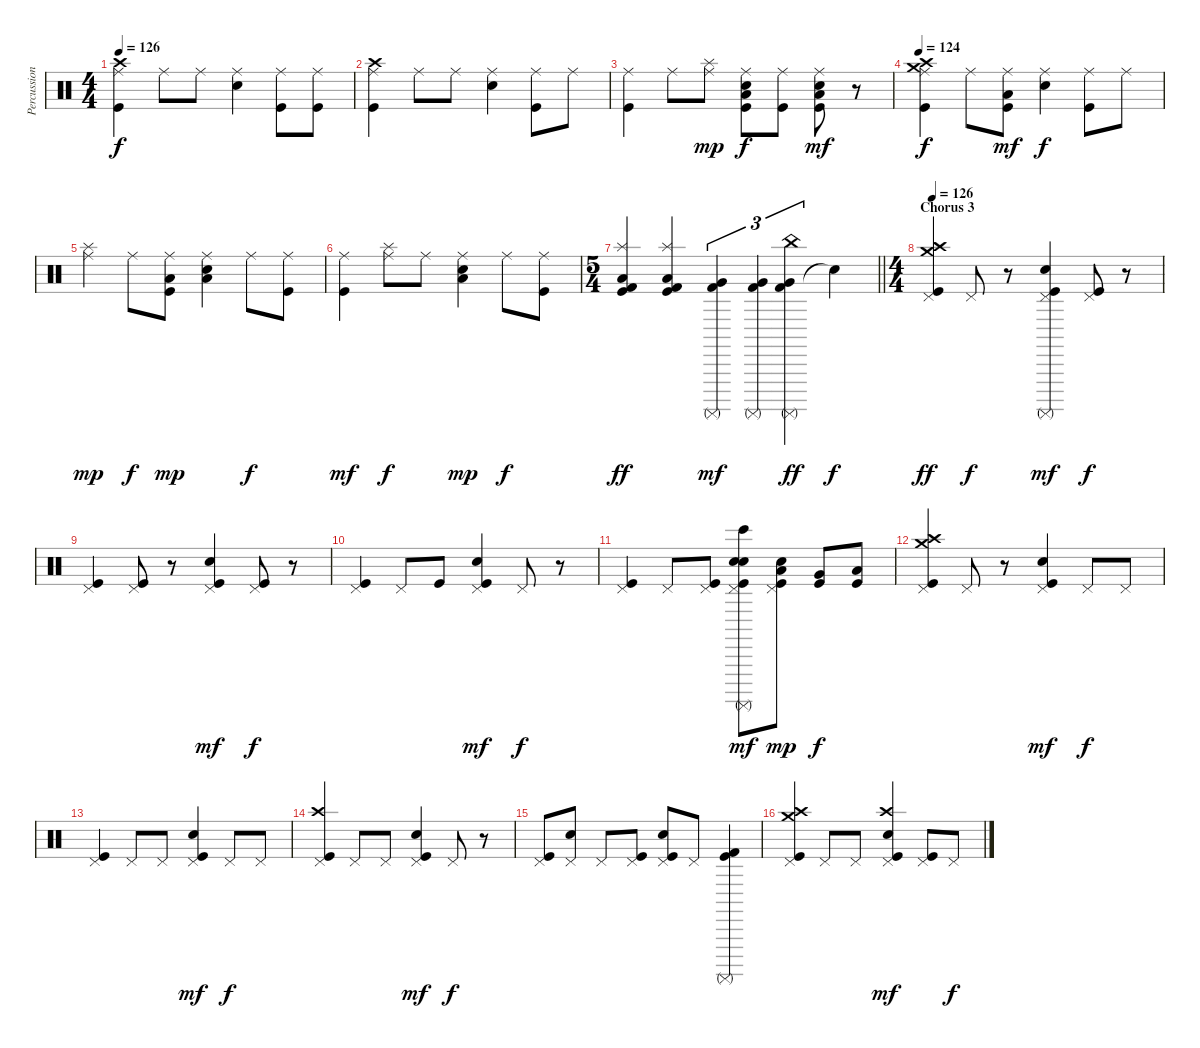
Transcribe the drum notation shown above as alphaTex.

\track ("Percussion" "Percussion") {instrument percussion}
\staff {score}
\articulation defaults
\ts (4 4)
\tempo 126
\clef neutral
\ks c
("Ride (middle)" "Kick (hit)" "Crash high (hit)").4{dy f} "Ride (middle)".8 "Ride (middle)".8 ("Ride (middle)" "Electric Snare (hit)").4 ("Ride (middle)" "Kick (hit)").8 ("Ride (middle)" "Kick (hit)").8 |
("Ride (middle)" "Kick (hit)" "Crash high (hit)").4 "Ride (middle)".8 "Ride (middle)".8 ("Ride (middle)" "Electric Snare (hit)").4 ("Ride (middle)" "Kick (hit)").8 "Ride (middle)".8 |
("Ride (middle)" "Kick (hit)").4 "Ride (middle)".8 ("Ride (middle)" "Splash (hit)").8{dy mp} ("Ride (middle)" "Kick (hit)" "Low Floor Tom (hit)" "Snare (hit) 2").8{dy f} ("Ride (middle)" "Kick (hit)").8 ("Ride (middle)" "Kick (hit)" "Low Floor Tom (hit)" "Electric Snare (hit)").8{dy mf} r.8 |
\tempo 124
("Ride (middle)" "Kick (hit)" "Crash high (hit)" "Crash medium (hit)").4{dy f} "Ride (middle)".8 ("Ride (middle)" "Kick (hit)" "Low Floor Tom (hit)").8{dy mf} ("Ride (middle)" "Electric Snare (hit)").4{dy f} ("Ride (middle)" "Kick (hit)").8 "Ride (middle)".8 |
("Ride (middle)" "Splash (hit)").4{dy mp} "Ride (middle)".8{dy f} ("Ride (middle)" "Kick (hit)" "Low Floor Tom (hit)").8{dy mp} ("Ride (middle)" "Electric Snare (hit)" "Low Floor Tom (hit)").4 "Ride (middle)".8{dy f} ("Ride (middle)" "Kick (hit)").8 |
("Ride (middle)" "Kick (hit)").4{dy mf} ("Ride (middle)" "Splash (hit)").8{dy f} "Ride (middle)".8 ("Ride (middle)" "Electric Snare (hit)" "Low Floor Tom (hit)").4{dy mp} "Ride (middle)".8{dy f} ("Ride (middle)" "Kick (hit)").8 |
\ts (5 4)
\barLineRight lightlight
("Kick (hit) 2" "Kick (hit)" "Low Floor Tom (hit)" "Splash (hit)").4{dy ff} ("Kick (hit) 2" "Kick (hit)" "Low Floor Tom (hit)" "Splash (hit)").4 ("Kick (hit) 2" "Surdo (mute)" "Very Low Tom (hit)").4{tu (3 2) dy mf} ("Kick (hit) 2" "Surdo (mute)" "Very Low Tom (hit)").4{tu (3 2)} ("Kick (hit) 2" "Surdo (mute)" "Very Low Tom (hit)" "China (hit)").4{tu (3 2) dy ff} "Snare (hit)"{t}.4{dy f} |
\ts (4 4)
\section ("" "Chorus 3")
\tempo 126
("Pedal Hi-Hat (hit)" "Kick (hit)" "Crash high (hit)" "Crash medium (hit)").4{dy ff} "Pedal Hi-Hat (hit)".8{dy f} r.8 ("Pedal Hi-Hat (hit)" "Surdo (mute)" "Electric Snare (hit)" "Kick (hit)").4{dy mf} ("Pedal Hi-Hat (hit)" "Kick (hit)").8{dy f} r.8 |
("Pedal Hi-Hat (hit)" "Kick (hit)").4 ("Pedal Hi-Hat (hit)" "Kick (hit)").8 r.8 ("Pedal Hi-Hat (hit)" "Kick (hit)" "Electric Snare (hit)").4{dy mf} ("Pedal Hi-Hat (hit)" "Kick (hit)").8{dy f} r.8 |
("Pedal Hi-Hat (hit)" "Kick (hit)").4 "Pedal Hi-Hat (hit)".8 "Kick (hit)".8 ("Pedal Hi-Hat (hit)" "Kick (hit)" "Electric Snare (hit)").4{dy mf} "Pedal Hi-Hat (hit)".8{dy f} r.8 |
("Pedal Hi-Hat (hit)" "Kick (hit)").4 "Pedal Hi-Hat (hit)".8 ("Pedal Hi-Hat (hit)" "Kick (hit)").8 ("Surdo (mute)" "Hand Clap (hit)" "Pedal Hi-Hat (hit)" "Bongo High (hit)" "Electric Snare (hit)" "Kick (hit)").8{dy mf} ("Low Tom (hit)" "Pedal Hi-Hat (hit)" "Kick (hit)" "Electric Snare (hit)").8{dy mp} ("Very Low Tom (hit)" "Kick (hit)").8{dy f} ("Low Floor Tom (hit)" "Kick (hit)").8 |
("Pedal Hi-Hat (hit)" "Kick (hit)" "Crash high (hit)" "Crash medium (hit)").4 "Pedal Hi-Hat (hit)".8 r.8 ("Pedal Hi-Hat (hit)" "Kick (hit)" "Electric Snare (hit)").4{dy mf} "Pedal Hi-Hat (hit)".8{dy f} "Pedal Hi-Hat (hit)".8 |
("Pedal Hi-Hat (hit)" "Kick (hit)").4 "Pedal Hi-Hat (hit)".8 "Pedal Hi-Hat (hit)".8 ("Pedal Hi-Hat (hit)" "Kick (hit)" "Electric Snare (hit)").4{dy mf} "Pedal Hi-Hat (hit)".8{dy f} "Pedal Hi-Hat (hit)".8 |
("Pedal Hi-Hat (hit)" "Kick (hit)" "Crash high (hit)").4 "Pedal Hi-Hat (hit)".8 "Pedal Hi-Hat (hit)".8 ("Pedal Hi-Hat (hit)" "Kick (hit)" "Electric Snare (hit)").4{dy mf} "Pedal Hi-Hat (hit)".8{dy f} r.8 |
("Pedal Hi-Hat (hit)" "Kick (hit)").8 ("Pedal Hi-Hat (hit)" "Electric Snare (hit)").8 "Pedal Hi-Hat (hit)".8 ("Pedal Hi-Hat (hit)" "Kick (hit)").8 ("Pedal Hi-Hat (hit)" "Electric Snare (hit)" "Kick (hit)").8 "Pedal Hi-Hat (hit)".8 ("Kick (hit) 2" "Kick (hit)" "Surdo (mute)").4 |
("Pedal Hi-Hat (hit)" "Kick (hit)" "Crash high (hit)" "Crash medium (hit)").4 "Pedal Hi-Hat (hit)".8 "Pedal Hi-Hat (hit)".8 ("Crash high (hit)" "Pedal Hi-Hat (hit)" "Kick (hit)" "Electric Snare (hit)").4{dy mf} ("Pedal Hi-Hat (hit)" "Kick (hit)").8 "Pedal Hi-Hat (hit)".8{dy f}
